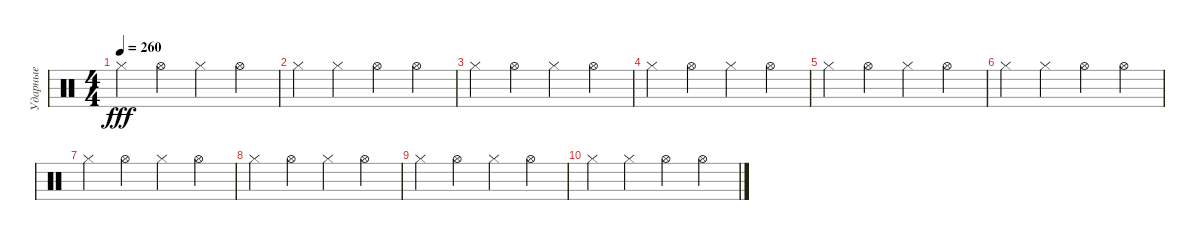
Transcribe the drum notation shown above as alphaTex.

\track ("Ударные" "Ударные") {instrument percussion}
\staff {score}
\articulation defaults
\ts (4 4)
\tempo 260
\clef neutral
\ks c "Hi-Hat (closed)".4{dy fff} "Hi-Hat (open)".4 "Hi-Hat (closed)".4 "Hi-Hat (open)".4
|
"Hi-Hat (closed)".4 "Hi-Hat (closed)".4 "Hi-Hat (open)".4 "Hi-Hat (open)".4 |
"Hi-Hat (closed)".4 "Hi-Hat (open)".4 "Hi-Hat (closed)".4 "Hi-Hat (open)".4 |
"Hi-Hat (closed)".4 "Hi-Hat (open)".4 "Hi-Hat (closed)".4 "Hi-Hat (open)".4 |
"Hi-Hat (closed)".4 "Hi-Hat (open)".4 "Hi-Hat (closed)".4 "Hi-Hat (open)".4 |
"Hi-Hat (closed)".4 "Hi-Hat (closed)".4 "Hi-Hat (open)".4 "Hi-Hat (open)".4 |
"Hi-Hat (closed)".4 "Hi-Hat (open)".4 "Hi-Hat (closed)".4 "Hi-Hat (open)".4 |
"Hi-Hat (closed)".4 "Hi-Hat (open)".4 "Hi-Hat (closed)".4 "Hi-Hat (open)".4 |
"Hi-Hat (closed)".4 "Hi-Hat (open)".4 "Hi-Hat (closed)".4 "Hi-Hat (open)".4 |
"Hi-Hat (closed)".4 "Hi-Hat (closed)".4 "Hi-Hat (open)".4 "Hi-Hat (open)".4
